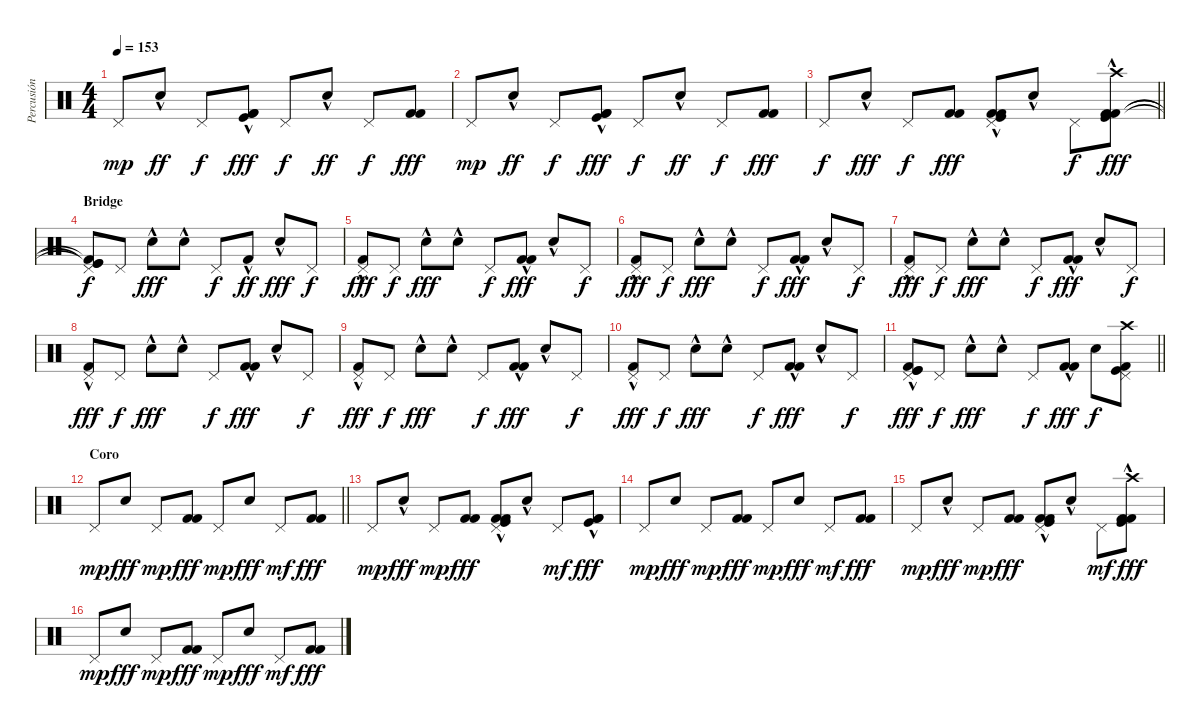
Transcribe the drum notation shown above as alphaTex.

\track ("Percusión (Javi Molina)" "Percusión ") {instrument percussion}
\staff {score}
\articulation defaults
\ts (4 4)
\tempo 153
\clef neutral
\ks c "Pedal Hi-Hat (hit)".8{dy mp} "Electric Snare (hit)"{hac}.8{dy ff} "Pedal Hi-Hat (hit)".8{dy f}
("Kick (hit) 2"{hac} "Kick (hit) 2"{hac} "Kick (hit)"{hac}).8{dy fff} "Pedal Hi-Hat (hit)".8{dy f} "Electric Snare (hit)"{hac}.8{dy ff} "Pedal Hi-Hat (hit)".8{dy f} ("Kick (hit) 2" "Kick (hit) 2").8{dy fff} |
"Pedal Hi-Hat (hit)".8{dy mp} "Electric Snare (hit)"{hac}.8{dy ff} "Pedal Hi-Hat (hit)".8{dy f} ("Kick (hit) 2"{hac} "Kick (hit) 2"{hac} "Kick (hit)"{hac}).8{dy fff} "Pedal Hi-Hat (hit)".8{dy f} "Electric Snare (hit)"{hac}.8{dy ff} "Pedal Hi-Hat (hit)".8{dy f} ("Kick (hit) 2" "Kick (hit) 2").8{dy fff} |
\barLineRight lightlight "Pedal Hi-Hat (hit)".8{dy f} "Electric Snare (hit)"{hac}.8{dy fff} "Pedal Hi-Hat (hit)".8{dy f}
("Kick (hit) 2" "Kick (hit) 2").8{dy fff} ("Pedal Hi-Hat (hit)" "Kick (hit) 2"{hac} "Kick (hit) 2"{hac} "Kick (hit)"{hac}).8 "Electric Snare (hit)"{hac}.8 "Pedal Hi-Hat (hit)".8{dy f} ("Kick (hit) 2"{hac} "Kick (hit) 2"{hac} "Kick (hit)"{hac} "Crash high (hit)").8{dy fff} |
\section ("" "Bridge")
("Kick (hit)"{t} "Kick (hit) 2"{t} "Kick (hit)"{t} "Pedal Hi-Hat (hit)").8{dy f} "Pedal Hi-Hat (hit)".8 "Electric Snare (hit)"{hac}.8{dy fff} "Electric Snare (hit)"{hac}.8 "Pedal Hi-Hat (hit)".8{dy f} "Kick (hit) 2"{hac}.8{dy ff} "Electric Snare (hit)"{hac}.8{dy fff} "Pedal Hi-Hat (hit)".8{dy f} |
("Kick (hit) 2"{hac} "Pedal Hi-Hat (hit)").8{dy fff} "Pedal Hi-Hat (hit)".8{dy f} "Electric Snare (hit)"{hac}.8{dy fff} "Electric Snare (hit)"{hac}.8 "Pedal Hi-Hat (hit)".8{dy f} ("Kick (hit) 2"{hac} "Kick (hit) 2"{hac}).8{dy fff} "Electric Snare (hit)"{hac}.8 "Pedal Hi-Hat (hit)".8{dy f} |
("Kick (hit) 2"{hac} "Pedal Hi-Hat (hit)").8{dy fff} "Pedal Hi-Hat (hit)".8{dy f} "Electric Snare (hit)"{hac}.8{dy fff} "Electric Snare (hit)"{hac}.8 "Pedal Hi-Hat (hit)".8{dy f} ("Kick (hit) 2"{hac} "Kick (hit) 2"{hac}).8{dy fff} "Electric Snare (hit)"{hac}.8 "Pedal Hi-Hat (hit)".8{dy f} |
("Kick (hit) 2"{hac} "Pedal Hi-Hat (hit)").8{dy fff} "Pedal Hi-Hat (hit)".8{dy f} "Electric Snare (hit)"{hac}.8{dy fff} "Electric Snare (hit)"{hac}.8 "Pedal Hi-Hat (hit)".8{dy f} ("Kick (hit) 2"{hac} "Kick (hit) 2"{hac}).8{dy fff} "Electric Snare (hit)"{hac}.8 "Pedal Hi-Hat (hit)".8{dy f} |
("Kick (hit) 2"{hac} "Pedal Hi-Hat (hit)").8{dy fff} "Pedal Hi-Hat (hit)".8{dy f} "Electric Snare (hit)"{hac}.8{dy fff} "Electric Snare (hit)"{hac}.8 "Pedal Hi-Hat (hit)".8{dy f} ("Kick (hit) 2"{hac} "Kick (hit) 2"{hac}).8{dy fff} "Electric Snare (hit)"{hac}.8 "Pedal Hi-Hat (hit)".8{dy f} |
("Kick (hit) 2"{hac} "Pedal Hi-Hat (hit)").8{dy fff} "Pedal Hi-Hat (hit)".8{dy f} "Electric Snare (hit)"{hac}.8{dy fff} "Electric Snare (hit)"{hac}.8 "Pedal Hi-Hat (hit)".8{dy f} ("Kick (hit) 2"{hac} "Kick (hit) 2"{hac}).8{dy fff} "Electric Snare (hit)"{hac}.8 "Pedal Hi-Hat (hit)".8{dy f} |
("Kick (hit) 2"{hac} "Pedal Hi-Hat (hit)").8{dy fff} "Pedal Hi-Hat (hit)".8{dy f} "Electric Snare (hit)"{hac}.8{dy fff} "Electric Snare (hit)"{hac}.8 "Pedal Hi-Hat (hit)".8{dy f} ("Kick (hit) 2"{hac} "Kick (hit) 2"{hac}).8{dy fff} "Electric Snare (hit)"{hac}.8 "Pedal Hi-Hat (hit)".8{dy f} |
\barLineRight lightlight
("Kick (hit)"{hac} "Kick (hit) 2"{hac} "Kick (hit)"{hac} "Pedal Hi-Hat (hit)").8{dy fff} "Pedal Hi-Hat (hit)".8{dy f} "Electric Snare (hit)"{hac}.8{dy fff} "Electric Snare (hit)"{hac}.8 "Pedal Hi-Hat (hit)".8{dy f} ("Kick (hit) 2"{hac} "Kick (hit) 2"{hac}).8{dy fff} "Electric Snare (hit)".8{dy f} ("Pedal Hi-Hat (hit)" "Kick (hit) 2" "Kick (hit)" "Crash high (hit)").8 |
\section ("" "Coro")
\barLineRight lightlight "Pedal Hi-Hat (hit)".8{dy mp} "Electric Snare (hit)".8{dy fff} "Pedal Hi-Hat (hit)".8{dy mp}
("Kick (hit) 2" "Kick (hit) 2").8{dy fff} "Pedal Hi-Hat (hit)".8{dy mp} "Electric Snare (hit)".8{dy fff} "Pedal Hi-Hat (hit)".8{dy mf} ("Kick (hit) 2" "Kick (hit) 2").8{dy fff} |
"Pedal Hi-Hat (hit)".8{dy mp} "Electric Snare (hit)"{hac}.8{dy fff} "Pedal Hi-Hat (hit)".8{dy mp} ("Kick (hit) 2" "Kick (hit) 2").8{dy fff} ("Pedal Hi-Hat (hit)" "Kick (hit) 2"{hac} "Kick (hit) 2"{hac} "Kick (hit)"{hac}).8 "Electric Snare (hit)"{hac}.8 "Pedal Hi-Hat (hit)".8{dy mf} ("Kick (hit) 2"{hac} "Kick (hit) 2"{hac} "Kick (hit)"{hac}).8{dy fff} |
"Pedal Hi-Hat (hit)".8{dy mp} "Electric Snare (hit)".8{dy fff} "Pedal Hi-Hat (hit)".8{dy mp} ("Kick (hit) 2" "Kick (hit) 2").8{dy fff} "Pedal Hi-Hat (hit)".8{dy mp} "Electric Snare (hit)".8{dy fff} "Pedal Hi-Hat (hit)".8{dy mf} ("Kick (hit) 2" "Kick (hit) 2").8{dy fff} |
"Pedal Hi-Hat (hit)".8{dy mp} "Electric Snare (hit)"{hac}.8{dy fff} "Pedal Hi-Hat (hit)".8{dy mp} ("Kick (hit) 2" "Kick (hit) 2").8{dy fff} ("Pedal Hi-Hat (hit)" "Kick (hit) 2"{hac} "Kick (hit) 2"{hac} "Kick (hit)"{hac}).8 "Electric Snare (hit)"{hac}.8 "Pedal Hi-Hat (hit)".8{dy mf} ("Kick (hit) 2"{hac} "Kick (hit) 2"{hac} "Kick (hit)"{hac} "Crash high (hit)").8{dy fff} |
"Pedal Hi-Hat (hit)".8{dy mp} "Electric Snare (hit)".8{dy fff} "Pedal Hi-Hat (hit)".8{dy mp} ("Kick (hit) 2" "Kick (hit) 2").8{dy fff} "Pedal Hi-Hat (hit)".8{dy mp} "Electric Snare (hit)".8{dy fff} "Pedal Hi-Hat (hit)".8{dy mf} ("Kick (hit) 2" "Kick (hit) 2").8{dy fff}
